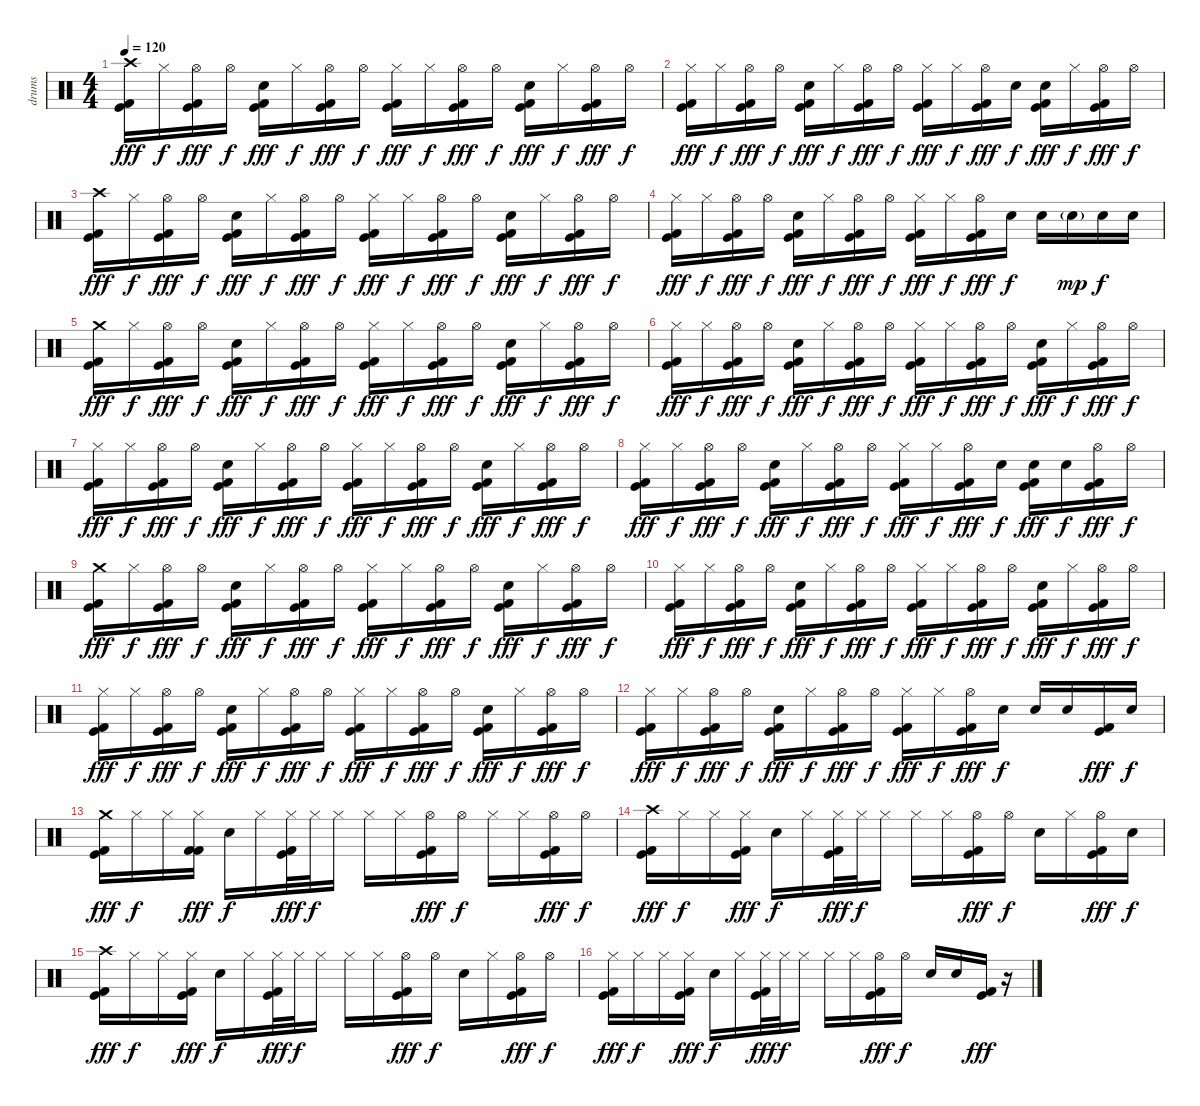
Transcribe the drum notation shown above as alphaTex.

\track ("drums" "drums") {instrument percussion}
\staff {score}
\articulation defaults
\ts (4 4)
\tempo 120
\clef neutral
\ks c
("Crash high (hit)" "Kick (hit)" "Kick (hit) 2").16{dy fff} "Hi-Hat (closed)".16{dy f} ("Hi-Hat (open)" "Kick (hit)" "Kick (hit) 2").16{dy fff} "Hi-Hat (open)".16{dy f} ("Electric Snare (hit)" "Kick (hit)" "Kick (hit) 2").16{dy fff} "Hi-Hat (closed)".16{dy f} ("Hi-Hat (open)" "Kick (hit)" "Kick (hit) 2").16{dy fff} "Hi-Hat (open)".16{dy f} ("Hi-Hat (closed)" "Kick (hit)" "Kick (hit) 2").16{dy fff} "Hi-Hat (closed)".16{dy f} ("Hi-Hat (open)" "Kick (hit)" "Kick (hit) 2").16{dy fff} "Hi-Hat (open)".16{dy f} ("Electric Snare (hit)" "Kick (hit)" "Kick (hit) 2").16{dy fff} "Hi-Hat (closed)".16{dy f} ("Hi-Hat (open)" "Kick (hit)" "Kick (hit) 2").16{dy fff} "Hi-Hat (open)".16{dy f} |
("Hi-Hat (closed)" "Kick (hit)" "Kick (hit) 2").16{dy fff} "Hi-Hat (closed)".16{dy f} ("Hi-Hat (open)" "Kick (hit)" "Kick (hit) 2").16{dy fff} "Hi-Hat (open)".16{dy f} ("Electric Snare (hit)" "Kick (hit)" "Kick (hit) 2").16{dy fff} "Hi-Hat (closed)".16{dy f} ("Hi-Hat (open)" "Kick (hit)" "Kick (hit) 2").16{dy fff} "Hi-Hat (open)".16{dy f} ("Hi-Hat (closed)" "Kick (hit)" "Kick (hit) 2").16{dy fff} "Hi-Hat (closed)".16{dy f} ("Hi-Hat (open)" "Kick (hit)" "Kick (hit) 2").16{dy fff} "Electric Snare (hit)".16{dy f} ("Electric Snare (hit)" "Kick (hit)" "Kick (hit) 2").16{dy fff} "Hi-Hat (closed)".16{dy f} ("Hi-Hat (open)" "Kick (hit)" "Kick (hit) 2").16{dy fff} "Hi-Hat (open)".16{dy f} |
("Crash high (hit)" "Kick (hit)" "Kick (hit) 2").16{dy fff} "Hi-Hat (closed)".16{dy f} ("Hi-Hat (open)" "Kick (hit)" "Kick (hit) 2").16{dy fff} "Hi-Hat (open)".16{dy f} ("Electric Snare (hit)" "Kick (hit)" "Kick (hit) 2").16{dy fff} "Hi-Hat (closed)".16{dy f} ("Hi-Hat (open)" "Kick (hit)" "Kick (hit) 2").16{dy fff} "Hi-Hat (open)".16{dy f} ("Hi-Hat (closed)" "Kick (hit)" "Kick (hit) 2").16{dy fff} "Hi-Hat (closed)".16{dy f} ("Hi-Hat (open)" "Kick (hit)" "Kick (hit) 2").16{dy fff} "Hi-Hat (open)".16{dy f} ("Electric Snare (hit)" "Kick (hit)" "Kick (hit) 2").16{dy fff} "Hi-Hat (closed)".16{dy f} ("Hi-Hat (open)" "Kick (hit)" "Kick (hit) 2").16{dy fff} "Hi-Hat (open)".16{dy f} |
("Hi-Hat (closed)" "Kick (hit)" "Kick (hit) 2").16{dy fff} "Hi-Hat (closed)".16{dy f} ("Hi-Hat (open)" "Kick (hit)" "Kick (hit) 2").16{dy fff} "Hi-Hat (open)".16{dy f} ("Electric Snare (hit)" "Kick (hit)" "Kick (hit) 2").16{dy fff} "Hi-Hat (closed)".16{dy f} ("Hi-Hat (open)" "Kick (hit)" "Kick (hit) 2").16{dy fff} "Hi-Hat (open)".16{dy f} ("Hi-Hat (closed)" "Kick (hit)" "Kick (hit) 2").16{dy fff} "Hi-Hat (closed)".16{dy f} ("Hi-Hat (open)" "Kick (hit)" "Kick (hit) 2").16{dy fff} "Electric Snare (hit)".16{dy f} "Electric Snare (hit)".16 "Electric Snare (hit)"{g}.16{dy mp} "Electric Snare (hit)".16{dy f} "Electric Snare (hit)".16 |
("Crash medium (hit)" "Kick (hit)" "Kick (hit) 2").16{dy fff} "Hi-Hat (closed)".16{dy f} ("Hi-Hat (open)" "Kick (hit)" "Kick (hit) 2").16{dy fff} "Hi-Hat (open)".16{dy f} ("Electric Snare (hit)" "Kick (hit)" "Kick (hit) 2").16{dy fff} "Hi-Hat (closed)".16{dy f} ("Hi-Hat (open)" "Kick (hit)" "Kick (hit) 2").16{dy fff} "Hi-Hat (open)".16{dy f} ("Hi-Hat (closed)" "Kick (hit)" "Kick (hit) 2").16{dy fff} "Hi-Hat (closed)".16{dy f} ("Hi-Hat (open)" "Kick (hit)" "Kick (hit) 2").16{dy fff} "Hi-Hat (open)".16{dy f} ("Electric Snare (hit)" "Kick (hit)" "Kick (hit) 2").16{dy fff} "Hi-Hat (closed)".16{dy f} ("Hi-Hat (open)" "Kick (hit)" "Kick (hit) 2").16{dy fff} "Hi-Hat (open)".16{dy f} |
("Hi-Hat (closed)" "Kick (hit)" "Kick (hit) 2").16{dy fff} "Hi-Hat (closed)".16{dy f} ("Hi-Hat (open)" "Kick (hit)" "Kick (hit) 2").16{dy fff} "Hi-Hat (open)".16{dy f} ("Electric Snare (hit)" "Kick (hit)" "Kick (hit) 2").16{dy fff} "Hi-Hat (closed)".16{dy f} ("Hi-Hat (open)" "Kick (hit)" "Kick (hit) 2").16{dy fff} "Hi-Hat (open)".16{dy f} ("Hi-Hat (closed)" "Kick (hit)" "Kick (hit) 2").16{dy fff} "Hi-Hat (closed)".16{dy f} ("Hi-Hat (open)" "Kick (hit)" "Kick (hit) 2").16{dy fff} "Hi-Hat (open)".16{dy f} ("Electric Snare (hit)" "Kick (hit)" "Kick (hit) 2").16{dy fff} "Hi-Hat (closed)".16{dy f} ("Hi-Hat (open)" "Kick (hit)" "Kick (hit) 2").16{dy fff} "Hi-Hat (open)".16{dy f} |
("Hi-Hat (closed)" "Kick (hit)" "Kick (hit) 2").16{dy fff} "Hi-Hat (closed)".16{dy f} ("Hi-Hat (open)" "Kick (hit)" "Kick (hit) 2").16{dy fff} "Hi-Hat (open)".16{dy f} ("Electric Snare (hit)" "Kick (hit)" "Kick (hit) 2").16{dy fff} "Hi-Hat (closed)".16{dy f} ("Hi-Hat (open)" "Kick (hit)" "Kick (hit) 2").16{dy fff} "Hi-Hat (open)".16{dy f} ("Hi-Hat (closed)" "Kick (hit)" "Kick (hit) 2").16{dy fff} "Hi-Hat (closed)".16{dy f} ("Hi-Hat (open)" "Kick (hit)" "Kick (hit) 2").16{dy fff} "Hi-Hat (open)".16{dy f} ("Electric Snare (hit)" "Kick (hit)" "Kick (hit) 2").16{dy fff} "Hi-Hat (closed)".16{dy f} ("Hi-Hat (open)" "Kick (hit)" "Kick (hit) 2").16{dy fff} "Hi-Hat (open)".16{dy f} |
("Hi-Hat (closed)" "Kick (hit)" "Kick (hit) 2").16{dy fff} "Hi-Hat (closed)".16{dy f} ("Hi-Hat (open)" "Kick (hit)" "Kick (hit) 2").16{dy fff} "Hi-Hat (open)".16{dy f} ("Electric Snare (hit)" "Kick (hit)" "Kick (hit) 2").16{dy fff} "Hi-Hat (closed)".16{dy f} ("Hi-Hat (open)" "Kick (hit)" "Kick (hit) 2").16{dy fff} "Hi-Hat (open)".16{dy f} ("Hi-Hat (closed)" "Kick (hit)" "Kick (hit) 2").16{dy fff} "Hi-Hat (closed)".16{dy f} ("Hi-Hat (open)" "Kick (hit)" "Kick (hit) 2").16{dy fff} "Electric Snare (hit)".16{dy f} ("Electric Snare (hit)" "Kick (hit)" "Kick (hit) 2").16{dy fff} "Electric Snare (hit)".16{dy f} ("Hi-Hat (open)" "Kick (hit)" "Kick (hit) 2").16{dy fff} "Hi-Hat (open)".16{dy f} |
("Crash medium (hit)" "Kick (hit)" "Kick (hit) 2").16{dy fff} "Hi-Hat (closed)".16{dy f} ("Hi-Hat (open)" "Kick (hit)" "Kick (hit) 2").16{dy fff} "Hi-Hat (open)".16{dy f} ("Electric Snare (hit)" "Kick (hit)" "Kick (hit) 2").16{dy fff} "Hi-Hat (closed)".16{dy f} ("Hi-Hat (open)" "Kick (hit)" "Kick (hit) 2").16{dy fff} "Hi-Hat (open)".16{dy f} ("Hi-Hat (closed)" "Kick (hit)" "Kick (hit) 2").16{dy fff} "Hi-Hat (closed)".16{dy f} ("Hi-Hat (open)" "Kick (hit)" "Kick (hit) 2").16{dy fff} "Hi-Hat (open)".16{dy f} ("Electric Snare (hit)" "Kick (hit)" "Kick (hit) 2").16{dy fff} "Hi-Hat (closed)".16{dy f} ("Hi-Hat (open)" "Kick (hit)" "Kick (hit) 2").16{dy fff} "Hi-Hat (open)".16{dy f} |
("Hi-Hat (closed)" "Kick (hit)" "Kick (hit) 2").16{dy fff} "Hi-Hat (closed)".16{dy f} ("Hi-Hat (open)" "Kick (hit)" "Kick (hit) 2").16{dy fff} "Hi-Hat (open)".16{dy f} ("Electric Snare (hit)" "Kick (hit)" "Kick (hit) 2").16{dy fff} "Hi-Hat (closed)".16{dy f} ("Hi-Hat (open)" "Kick (hit)" "Kick (hit) 2").16{dy fff} "Hi-Hat (open)".16{dy f} ("Hi-Hat (closed)" "Kick (hit)" "Kick (hit) 2").16{dy fff} "Hi-Hat (closed)".16{dy f} ("Hi-Hat (open)" "Kick (hit)" "Kick (hit) 2").16{dy fff} "Hi-Hat (open)".16{dy f} ("Electric Snare (hit)" "Kick (hit)" "Kick (hit) 2").16{dy fff} "Hi-Hat (closed)".16{dy f} ("Hi-Hat (open)" "Kick (hit)" "Kick (hit) 2").16{dy fff} "Hi-Hat (open)".16{dy f} |
("Hi-Hat (closed)" "Kick (hit)" "Kick (hit) 2").16{dy fff} "Hi-Hat (closed)".16{dy f} ("Hi-Hat (open)" "Kick (hit)" "Kick (hit) 2").16{dy fff} "Hi-Hat (open)".16{dy f} ("Electric Snare (hit)" "Kick (hit)" "Kick (hit) 2").16{dy fff} "Hi-Hat (closed)".16{dy f} ("Hi-Hat (open)" "Kick (hit)" "Kick (hit) 2").16{dy fff} "Hi-Hat (open)".16{dy f} ("Hi-Hat (closed)" "Kick (hit)" "Kick (hit) 2").16{dy fff} "Hi-Hat (closed)".16{dy f} ("Hi-Hat (open)" "Kick (hit)" "Kick (hit) 2").16{dy fff} "Hi-Hat (open)".16{dy f} ("Electric Snare (hit)" "Kick (hit)" "Kick (hit) 2").16{dy fff} "Hi-Hat (closed)".16{dy f} ("Hi-Hat (open)" "Kick (hit)" "Kick (hit) 2").16{dy fff} "Hi-Hat (open)".16{dy f} |
("Hi-Hat (closed)" "Kick (hit)" "Kick (hit) 2").16{dy fff} "Hi-Hat (closed)".16{dy f} ("Hi-Hat (open)" "Kick (hit)" "Kick (hit) 2").16{dy fff} "Hi-Hat (open)".16{dy f} ("Electric Snare (hit)" "Kick (hit)" "Kick (hit) 2").16{dy fff} "Hi-Hat (closed)".16{dy f} ("Hi-Hat (open)" "Kick (hit)" "Kick (hit) 2").16{dy fff} "Hi-Hat (open)".16{dy f} ("Hi-Hat (closed)" "Kick (hit)" "Kick (hit) 2").16{dy fff} "Hi-Hat (closed)".16{dy f} ("Hi-Hat (open)" "Kick (hit)" "Kick (hit) 2").16{dy fff} "Electric Snare (hit)".16{dy f} "Electric Snare (hit)".16 "Electric Snare (hit)".16 ("Kick (hit)" "Kick (hit) 2").16{dy fff} "Electric Snare (hit)".16{dy f} |
("Crash medium (hit)" "Kick (hit)" "Kick (hit) 2").16{dy fff} "Hi-Hat (closed)".16{dy f} "Hi-Hat (closed)".16 ("Hi-Hat (closed)" "Kick (hit) 2" "Kick (hit) 2").16{dy fff} "Electric Snare (hit)".16{dy f} "Hi-Hat (closed)".16 ("Hi-Hat (closed)" "Kick (hit)" "Kick (hit) 2").32{dy fff} "Hi-Hat (closed)".32{dy f} "Hi-Hat (closed)".16 "Hi-Hat (closed)".16 "Hi-Hat (closed)".16 ("Hi-Hat (open)" "Kick (hit)" "Kick (hit) 2").16{dy fff} "Hi-Hat (open)".16{dy f} "Hi-Hat (closed)".16 "Hi-Hat (closed)".16 ("Hi-Hat (open)" "Kick (hit)" "Kick (hit) 2").16{dy fff} "Hi-Hat (open)".16{dy f} |
("Crash high (hit)" "Kick (hit)" "Kick (hit) 2").16{dy fff} "Hi-Hat (closed)".16{dy f} "Hi-Hat (closed)".16 ("Hi-Hat (closed)" "Kick (hit)" "Kick (hit) 2").16{dy fff} "Electric Snare (hit)".16{dy f} "Hi-Hat (closed)".16 ("Hi-Hat (closed)" "Kick (hit)" "Kick (hit) 2").32{dy fff} "Hi-Hat (closed)".32{dy f} "Hi-Hat (closed)".16 "Hi-Hat (closed)".16 "Hi-Hat (closed)".16 ("Hi-Hat (open)" "Kick (hit)" "Kick (hit) 2").16{dy fff} "Hi-Hat (open)".16{dy f} "Electric Snare (hit)".16 "Hi-Hat (closed)".16 ("Hi-Hat (open)" "Kick (hit)" "Kick (hit) 2").16{dy fff} "Electric Snare (hit)".16{dy f} |
("Crash high (hit)" "Kick (hit)" "Kick (hit) 2").16{dy fff} "Hi-Hat (closed)".16{dy f} "Hi-Hat (closed)".16 ("Hi-Hat (closed)" "Kick (hit)" "Kick (hit) 2").16{dy fff} "Electric Snare (hit)".16{dy f} "Hi-Hat (closed)".16 ("Hi-Hat (closed)" "Kick (hit)" "Kick (hit) 2").32{dy fff} "Hi-Hat (closed)".32{dy f} "Hi-Hat (closed)".16 "Hi-Hat (closed)".16 "Hi-Hat (closed)".16 ("Hi-Hat (open)" "Kick (hit)" "Kick (hit) 2").16{dy fff} "Hi-Hat (open)".16{dy f} "Electric Snare (hit)".16 "Hi-Hat (closed)".16 ("Hi-Hat (open)" "Kick (hit)" "Kick (hit) 2").16{dy fff} "Hi-Hat (open)".16{dy f} |
("Hi-Hat (closed)" "Kick (hit)" "Kick (hit) 2").16{dy fff} "Hi-Hat (closed)".16{dy f} "Hi-Hat (closed)".16 ("Hi-Hat (closed)" "Kick (hit)" "Kick (hit) 2").16{dy fff} "Electric Snare (hit)".16{dy f} "Hi-Hat (closed)".16 ("Hi-Hat (closed)" "Kick (hit)" "Kick (hit) 2").32{dy fff} "Hi-Hat (closed)".32{dy f} "Hi-Hat (closed)".16 "Hi-Hat (closed)".16 "Hi-Hat (closed)".16 ("Hi-Hat (open)" "Kick (hit)" "Kick (hit) 2").16{dy fff} "Hi-Hat (open)".16{dy f} "Electric Snare (hit)".16 "Electric Snare (hit)".16 ("Kick (hit)" "Kick (hit) 2").16{dy fff} r.16
